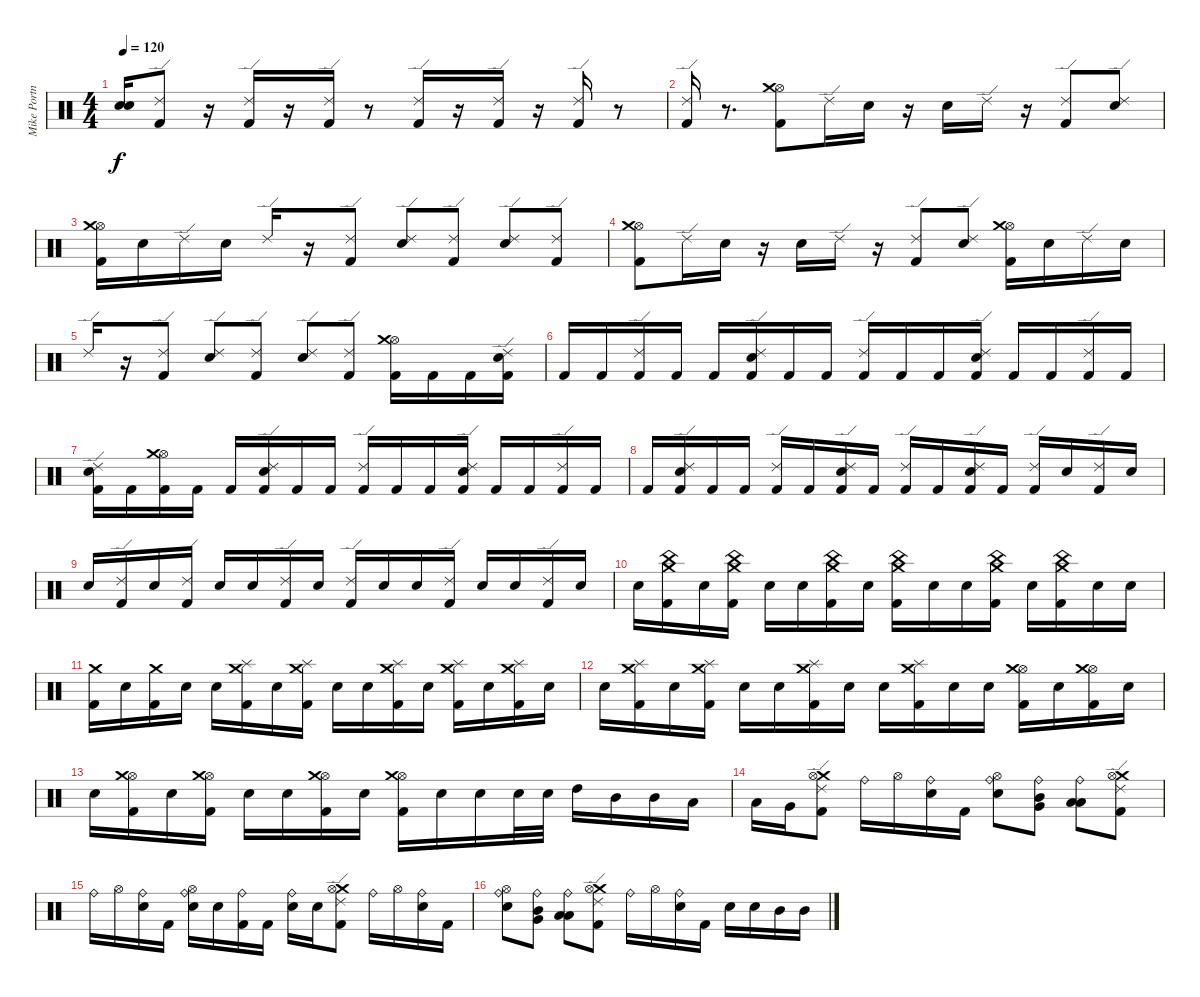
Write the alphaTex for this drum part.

\track ("Mike Portnoy - Batterie" "Mike Portn") {instrument percussion}
\staff {score}
\articulation defaults
\ts (4 4)
\tempo 120
\clef neutral
\ks c
("Snare (hit)"{t} "Snare (hit)"{t}).16{dy f} ("Ride (edge) 2" "Kick (hit) 2").8 r.16 ("Kick (hit) 2" "Ride (edge) 2").16 r.16 ("Kick (hit) 2" "Ride (edge) 2").16 r.8 ("Kick (hit) 2" "Ride (edge) 2").16 r.16 ("Kick (hit) 2" "Ride (edge) 2").16 r.16 ("Kick (hit) 2" "Ride (edge) 2").16 r.8 |
("Kick (hit) 2" "Ride (edge) 2").16 r.8{d} ("Hi-Hat (open)" "Crash medium (hit)" "Kick (hit) 2").8 "Ride (edge) 2".16 "Electric Snare (hit)".16 r.16 "Electric Snare (hit)".16 "Ride (edge) 2".16 r.16 ("Kick (hit) 2" "Ride (edge) 2").8 ("Ride (edge) 2" "Electric Snare (hit)").8 |
("Hi-Hat (open)" "Crash medium (hit)" "Kick (hit) 2").16 "Electric Snare (hit)".16 "Ride (edge) 2".16 "Electric Snare (hit)".16 "Ride (edge) 2".16 r.16 ("Kick (hit) 2" "Ride (edge) 2").8 ("Ride (edge) 2" "Electric Snare (hit)").8 ("Ride (edge) 2" "Kick (hit) 2").8 ("Ride (edge) 2" "Electric Snare (hit)").8 ("Ride (edge) 2" "Kick (hit) 2").8 |
("Hi-Hat (open)" "Crash medium (hit)" "Kick (hit) 2").8 "Ride (edge) 2".16 "Electric Snare (hit)".16 r.16 "Electric Snare (hit)".16 "Ride (edge) 2".16 r.16 ("Kick (hit) 2" "Ride (edge) 2").8 ("Ride (edge) 2" "Electric Snare (hit)").8 ("Hi-Hat (open)" "Crash medium (hit)" "Kick (hit) 2").16 "Electric Snare (hit)".16 "Ride (edge) 2".16 "Electric Snare (hit)".16 |
"Ride (edge) 2".16 r.16 ("Kick (hit) 2" "Ride (edge) 2").8 ("Ride (edge) 2" "Electric Snare (hit)").8 ("Ride (edge) 2" "Kick (hit) 2").8 ("Ride (edge) 2" "Electric Snare (hit)").8 ("Ride (edge) 2" "Kick (hit) 2").8 ("Hi-Hat (open)" "Crash medium (hit)" "Kick (hit) 2").16 "Kick (hit) 2".16 "Kick (hit) 2".16 ("Ride (edge) 2" "Electric Snare (hit)" "Kick (hit) 2").16 |
"Kick (hit) 2".16 "Kick (hit) 2".16 ("Ride (edge) 2" "Kick (hit) 2").16 "Kick (hit) 2".16 "Kick (hit) 2".16 ("Ride (edge) 2" "Electric Snare (hit)" "Kick (hit) 2").16 "Kick (hit) 2".16 "Kick (hit) 2".16 ("Ride (edge) 2" "Kick (hit) 2").16 "Kick (hit) 2".16 "Kick (hit) 2".16 ("Ride (edge) 2" "Electric Snare (hit)" "Kick (hit) 2").16 "Kick (hit) 2".16 "Kick (hit) 2".16 ("Ride (edge) 2" "Kick (hit) 2").16 "Kick (hit) 2".16 |
("Ride (edge) 2" "Electric Snare (hit)" "Kick (hit) 2").16 "Kick (hit) 2".16 ("Hi-Hat (open)" "Crash medium (hit)" "Kick (hit) 2").16 "Kick (hit) 2".16 "Kick (hit) 2".16 ("Ride (edge) 2" "Electric Snare (hit)" "Kick (hit) 2").16 "Kick (hit) 2".16 "Kick (hit) 2".16 ("Ride (edge) 2" "Kick (hit) 2").16 "Kick (hit) 2".16 "Kick (hit) 2".16 ("Ride (edge) 2" "Electric Snare (hit)" "Kick (hit) 2").16 "Kick (hit) 2".16 "Kick (hit) 2".16 ("Ride (edge) 2" "Kick (hit) 2").16 "Kick (hit) 2".16 |
"Kick (hit) 2".16 ("Ride (edge) 2" "Electric Snare (hit)" "Kick (hit) 2").16 "Kick (hit) 2".16 "Kick (hit) 2".16 ("Ride (edge) 2" "Kick (hit) 2").16 "Kick (hit) 2".16 ("Ride (edge) 2" "Electric Snare (hit)" "Kick (hit) 2").16 "Kick (hit) 2".16 ("Ride (edge) 2" "Kick (hit) 2").16 "Kick (hit) 2".16 ("Electric Snare (hit)" "Ride (edge) 2" "Kick (hit) 2").16 "Kick (hit) 2".16 ("Kick (hit) 2" "Ride (edge) 2").16 "Electric Snare (hit)".16 ("Kick (hit) 2" "Ride (edge) 2").16 "Electric Snare (hit)".16 |
"Electric Snare (hit)".16 ("Ride (edge) 2" "Kick (hit) 2").16 "Electric Snare (hit)".16 ("Ride (edge) 2" "Kick (hit) 2").16 "Electric Snare (hit)".16 "Electric Snare (hit)".16 ("Ride (edge) 2" "Kick (hit) 2").16 "Electric Snare (hit)".16 ("Ride (edge) 2" "Kick (hit) 2").16 "Electric Snare (hit)".16 "Electric Snare (hit)".16 ("Ride (edge) 2" "Kick (hit) 2").16 "Electric Snare (hit)".16 "Electric Snare (hit)".16 ("Kick (hit) 2" "Ride (edge) 2").16 "Electric Snare (hit)".16 |
"Electric Snare (hit)".16 ("Crash medium (hit)" "China (hit)" "Kick (hit) 2").16 "Electric Snare (hit)".16 ("Crash medium (hit)" "China (hit)" "Kick (hit) 2").16 "Electric Snare (hit)".16 "Electric Snare (hit)".16 ("Crash medium (hit)" "China (hit)" "Kick (hit) 2").16 "Electric Snare (hit)".16 ("Crash medium (hit)" "China (hit)" "Kick (hit) 2").16 "Electric Snare (hit)".16 "Electric Snare (hit)".16 ("Crash medium (hit)" "China (hit)" "Kick (hit) 2").16 "Electric Snare (hit)".16 ("Crash medium (hit)" "China (hit)" "Kick (hit) 2").16 "Electric Snare (hit)".16 "Electric Snare (hit)".16 |
("Crash medium (hit)" "Kick (hit) 2").16 "Electric Snare (hit)".16 ("Crash medium (hit)" "Kick (hit) 2").16 "Electric Snare (hit)".16 "Electric Snare (hit)".16 ("Kick (hit) 2" "Crash medium (hit)" "Splash (hit)").16 "Electric Snare (hit)".16 ("Kick (hit) 2" "Crash medium (hit)" "Splash (hit)").16 "Electric Snare (hit)".16 "Electric Snare (hit)".16 ("Splash (hit)" "Crash medium (hit)" "Kick (hit) 2").16 "Electric Snare (hit)".16 ("Splash (hit)" "Crash medium (hit)" "Kick (hit) 2").16 "Electric Snare (hit)".16 ("Splash (hit)" "Crash medium (hit)" "Kick (hit) 2").16 "Electric Snare (hit)".16 |
"Electric Snare (hit)".16 ("Splash (hit)" "Crash medium (hit)" "Kick (hit) 2").16 "Electric Snare (hit)".16 ("Splash (hit)" "Crash medium (hit)" "Kick (hit) 2").16 "Electric Snare (hit)".16 "Electric Snare (hit)".16 ("Splash (hit)" "Crash medium (hit)" "Kick (hit) 2").16 "Electric Snare (hit)".16 "Electric Snare (hit)".16 ("Splash (hit)" "Crash medium (hit)" "Kick (hit) 2").16 "Electric Snare (hit)".16 "Electric Snare (hit)".16 ("Hi-Hat (open)" "Crash medium (hit)" "Kick (hit) 2").16 "Electric Snare (hit)".16 ("Hi-Hat (open)" "Crash medium (hit)" "Kick (hit) 2").16 "Electric Snare (hit)".16 |
"Electric Snare (hit)".16 ("Hi-Hat (open)" "Crash medium (hit)" "Kick (hit) 2").16 "Electric Snare (hit)".16 ("Hi-Hat (open)" "Crash medium (hit)" "Kick (hit) 2").16 "Electric Snare (hit)".16 "Electric Snare (hit)".16 ("Hi-Hat (open)" "Crash medium (hit)" "Kick (hit) 2").16 "Electric Snare (hit)".16 ("Hi-Hat (open)" "Crash medium (hit)" "Kick (hit) 2").16 "Electric Snare (hit)".16 "Electric Snare (hit)".16 "Electric Snare (hit)".32 "Electric Snare (hit)".32 "High Tom (hit)".16 "Mid Tom (hit)".16 "Mid Tom (hit)".16 "Low Tom (hit)".16 |
"Low Tom (hit)".16 "Very Low Tom (hit)".16 ("Crash medium (hit)" "Hi-Hat (open)" "Kick (hit) 2" "Ride (edge) 2").8 "Ride (bell)".16 "Hi-Hat (open)".16 ("Ride (bell)" "Electric Snare (hit)").16 "Kick (hit) 2".16 ("Ride (bell)" "Hi-Hat (open)" "Electric Snare (hit)").8 ("Ride (bell)" "Mid Tom (hit)" "Very Low Tom (hit)").8 ("Ride (bell)" "Low Tom (hit)" "Low Floor Tom (hit)").8 ("Crash medium (hit)" "Hi-Hat (open)" "Kick (hit) 2" "Ride (edge) 2").8 |
"Ride (bell)".16 "Hi-Hat (open)".16 ("Ride (bell)" "Electric Snare (hit)").16 "Kick (hit) 2".16 ("Electric Snare (hit)" "Ride (bell)" "Hi-Hat (open)").16 "Electric Snare (hit)".16 ("Kick (hit) 2" "Ride (bell)").16 "Kick (hit) 2".16 ("Electric Snare (hit)" "Ride (bell)").16 "Electric Snare (hit)".16 ("Crash medium (hit)" "Hi-Hat (open)" "Kick (hit) 2" "Ride (edge) 2").8 "Ride (bell)".16 "Hi-Hat (open)".16 ("Ride (bell)" "Electric Snare (hit)").16 "Kick (hit) 2".16 |
("Ride (bell)" "Hi-Hat (open)" "Electric Snare (hit)").8 ("Ride (bell)" "Mid Tom (hit)" "Very Low Tom (hit)").8 ("Ride (bell)" "Low Tom (hit)" "Low Floor Tom (hit)").8 ("Crash medium (hit)" "Hi-Hat (open)" "Kick (hit) 2" "Ride (edge) 2").8 "Ride (bell)".16 "Hi-Hat (open)".16 ("Ride (bell)" "Electric Snare (hit)").16 "Kick (hit) 2".16 "Electric Snare (hit)".16 "Electric Snare (hit)".16 "Mid Tom (hit)".16 "Mid Tom (hit)".16
